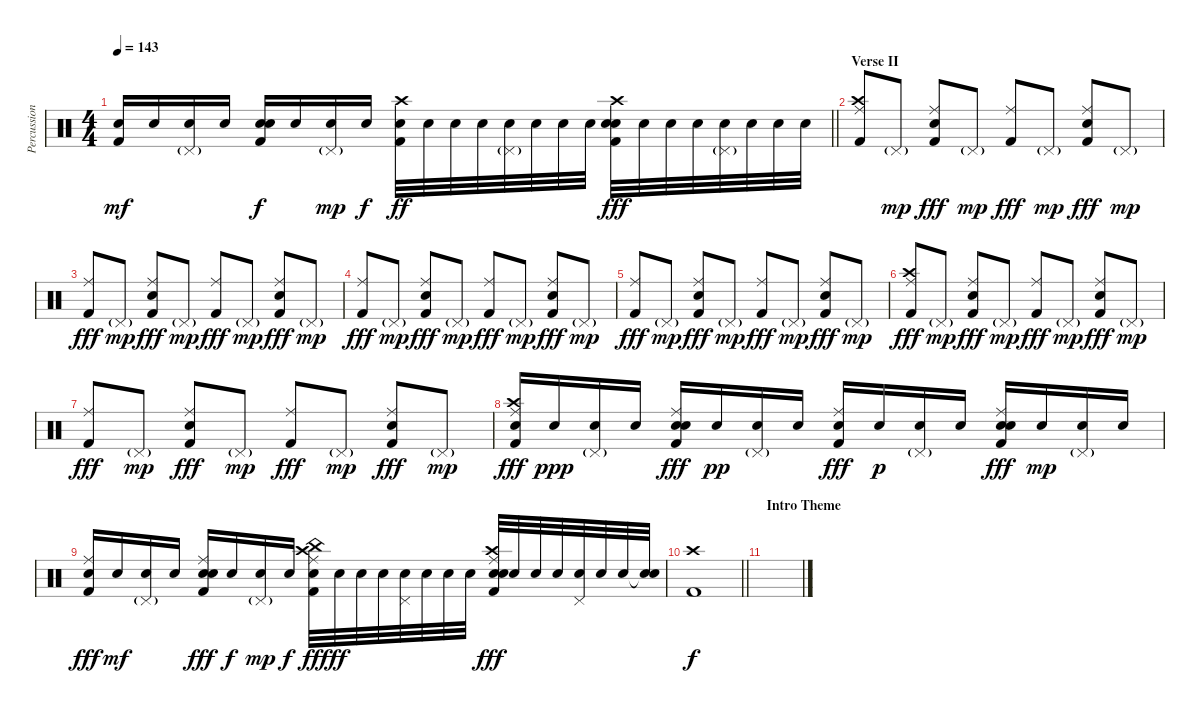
\track ("Percussion" "Percussion") {instrument percussion}
\staff {score}
\articulation defaults
\ts (4 4)
\tempo 143
\clef neutral
\barLineRight lightlight
\ks c
("Snare (hit) 2" "Kick (hit) 2").16{dy mf} "Snare (hit) 2".16 ("Pedal Hi-Hat (hit)"{g} "Snare (hit) 2").16 "Snare (hit) 2".16 ("Electric Snare (hit)" "Snare (hit) 2" "Kick (hit) 2").16{dy f} "Snare (hit) 2".16 ("Pedal Hi-Hat (hit)"{g} "Snare (hit) 2").16{dy mp} "Snare (hit) 2".16{dy f} ("Crash high (hit)" "Snare (hit) 2" "Kick (hit) 2").32{dy ff} "Snare (hit) 2".32 "Snare (hit) 2".32 "Snare (hit) 2".32 ("Pedal Hi-Hat (hit)"{g} "Snare (hit) 2").32 "Snare (hit) 2".32 "Snare (hit) 2".32 "Snare (hit) 2".32 ("Electric Snare (hit)" "Crash high (hit)" "Snare (hit) 2" "Kick (hit) 2").32{dy fff} "Snare (hit) 2".32 "Snare (hit) 2".32 "Snare (hit) 2".32 ("Pedal Hi-Hat (hit)"{g} "Snare (hit) 2").32 "Snare (hit) 2".32 "Snare (hit) 2".32 "Snare (hit) 2".32 |
\section ("" "Verse II")
("Crash high (hit)" "Ride (middle)" "Kick (hit) 2").8 "Pedal Hi-Hat (hit)"{g}.8{dy mp} ("Electric Snare (hit)" "Ride (middle)" "Kick (hit) 2").8{dy fff} "Pedal Hi-Hat (hit)"{g}.8{dy mp} ("Ride (middle)" "Kick (hit) 2").8{dy fff} "Pedal Hi-Hat (hit)"{g}.8{dy mp} ("Electric Snare (hit)" "Ride (middle)" "Kick (hit) 2").8{dy fff} "Pedal Hi-Hat (hit)"{g}.8{dy mp} |
("Ride (middle)" "Kick (hit) 2").8{dy fff} "Pedal Hi-Hat (hit)"{g}.8{dy mp} ("Electric Snare (hit)" "Ride (middle)" "Kick (hit) 2").8{dy fff} "Pedal Hi-Hat (hit)"{g}.8{dy mp} ("Ride (middle)" "Kick (hit) 2").8{dy fff} "Pedal Hi-Hat (hit)"{g}.8{dy mp} ("Electric Snare (hit)" "Ride (middle)" "Kick (hit) 2").8{dy fff} "Pedal Hi-Hat (hit)"{g}.8{dy mp} |
("Ride (middle)" "Kick (hit) 2").8{dy fff} "Pedal Hi-Hat (hit)"{g}.8{dy mp} ("Electric Snare (hit)" "Ride (middle)" "Kick (hit) 2").8{dy fff} "Pedal Hi-Hat (hit)"{g}.8{dy mp} ("Ride (middle)" "Kick (hit) 2").8{dy fff} "Pedal Hi-Hat (hit)"{g}.8{dy mp} ("Electric Snare (hit)" "Ride (middle)" "Kick (hit) 2").8{dy fff} "Pedal Hi-Hat (hit)"{g}.8{dy mp} |
("Ride (middle)" "Kick (hit) 2").8{dy fff} "Pedal Hi-Hat (hit)"{g}.8{dy mp} ("Electric Snare (hit)" "Ride (middle)" "Kick (hit) 2").8{dy fff} "Pedal Hi-Hat (hit)"{g}.8{dy mp} ("Ride (middle)" "Kick (hit) 2").8{dy fff} "Pedal Hi-Hat (hit)"{g}.8{dy mp} ("Electric Snare (hit)" "Ride (middle)" "Kick (hit) 2").8{dy fff} "Pedal Hi-Hat (hit)"{g}.8{dy mp} |
("Crash high (hit)" "Ride (middle)" "Kick (hit) 2").8{dy fff} "Pedal Hi-Hat (hit)"{g}.8{dy mp} ("Electric Snare (hit)" "Ride (middle)" "Kick (hit) 2").8{dy fff} "Pedal Hi-Hat (hit)"{g}.8{dy mp} ("Ride (middle)" "Kick (hit) 2").8{dy fff} "Pedal Hi-Hat (hit)"{g}.8{dy mp} ("Electric Snare (hit)" "Ride (middle)" "Kick (hit) 2").8{dy fff} "Pedal Hi-Hat (hit)"{g}.8{dy mp} |
("Ride (middle)" "Kick (hit) 2").8{dy fff} "Pedal Hi-Hat (hit)"{g}.8{dy mp} ("Electric Snare (hit)" "Ride (middle)" "Kick (hit) 2").8{dy fff} "Pedal Hi-Hat (hit)"{g}.8{dy mp} ("Ride (middle)" "Kick (hit) 2").8{dy fff} "Pedal Hi-Hat (hit)"{g}.8{dy mp} ("Electric Snare (hit)" "Ride (middle)" "Kick (hit) 2").8{dy fff} "Pedal Hi-Hat (hit)"{g}.8{dy mp} |
("Crash high (hit)" "Snare (hit) 2" "Ride (middle)" "Kick (hit) 2").16{dy fff} "Snare (hit) 2".16{dy ppp} ("Pedal Hi-Hat (hit)"{g} "Snare (hit) 2").16 "Snare (hit) 2".16 ("Electric Snare (hit)" "Snare (hit) 2" "Ride (middle)" "Kick (hit) 2").16{dy fff} "Snare (hit) 2".16{dy pp} ("Pedal Hi-Hat (hit)"{g} "Snare (hit) 2").16 "Snare (hit) 2".16 ("Snare (hit) 2" "Ride (middle)" "Kick (hit) 2").16{dy fff} "Snare (hit) 2".16{dy p} ("Pedal Hi-Hat (hit)"{g} "Snare (hit) 2").16 "Snare (hit) 2".16 ("Electric Snare (hit)" "Snare (hit) 2" "Ride (middle)" "Kick (hit) 2").16{dy fff} "Snare (hit) 2".16{dy mp} ("Pedal Hi-Hat (hit)"{g} "Snare (hit) 2").16 "Snare (hit) 2".16 |
("Snare (hit) 2" "Ride (middle)" "Kick (hit) 2").16{dy fff} "Snare (hit) 2".16{dy mf} ("Pedal Hi-Hat (hit)"{g} "Snare (hit) 2").16 "Snare (hit) 2".16 ("Electric Snare (hit)" "Snare (hit) 2" "Ride (middle)" "Kick (hit) 2").16{dy fff} "Snare (hit) 2".16{dy f} ("Pedal Hi-Hat (hit)"{g} "Snare (hit) 2").16{dy mp} "Snare (hit) 2".16{dy f} ("China (hit)" "Crash high (hit)" "Snare (hit) 2" "Ride (middle)" "Kick (hit) 2").32{dy fff} "Snare (hit) 2".32{dy ff} "Snare (hit) 2".32 "Snare (hit) 2".32 ("Pedal Hi-Hat (hit)" "Snare (hit) 2").32 "Snare (hit) 2".32 "Snare (hit) 2".32 "Snare (hit) 2".32 ("Electric Snare (hit)" "Crash high (hit)" "Snare (hit) 2" "Ride (middle)" "Kick (hit) 2").32{dy fff} "Snare (hit) 2".32 "Snare (hit) 2".32 "Snare (hit) 2".32 ("Pedal Hi-Hat (hit)" "Snare (hit) 2").32 "Snare (hit) 2".32 "Snare (hit) 2".32 ("Snare (hit)"{t} "Snare (hit) 2").32 |
\barLineRight lightlight
("Crash high (hit)" "Kick (hit) 2").1{dy f} |
\section ("" "Intro Theme")
